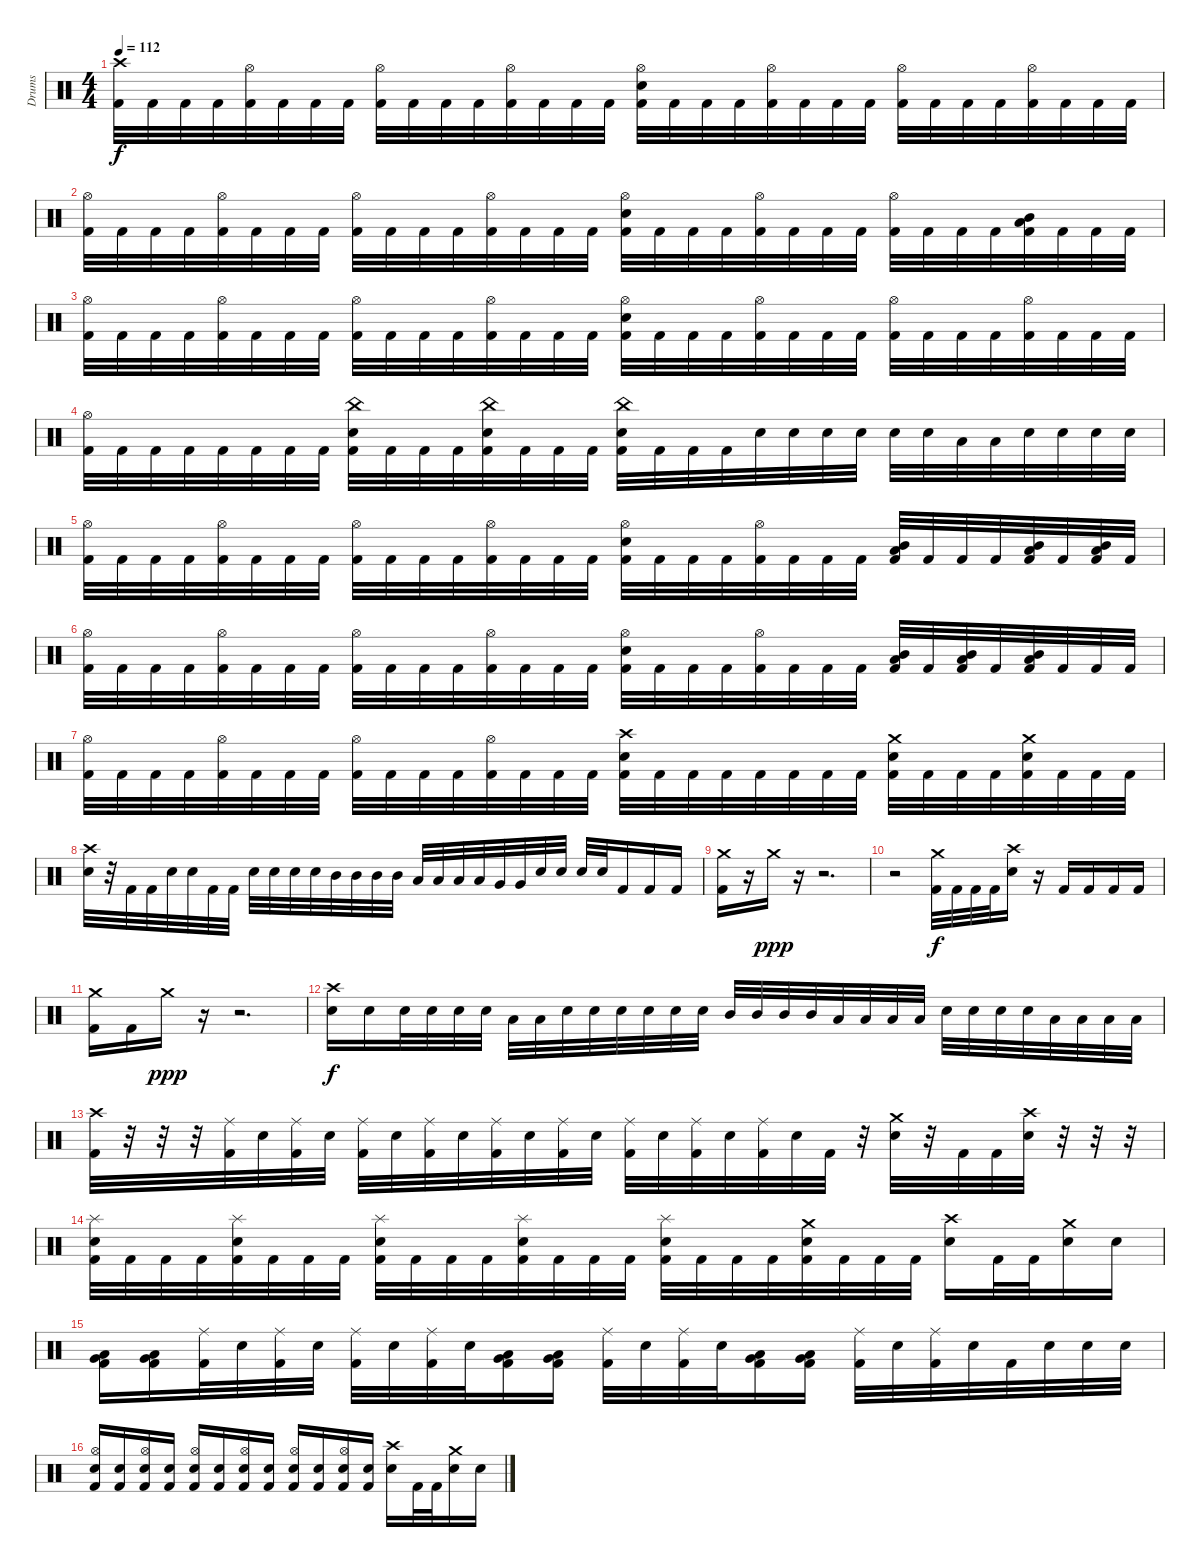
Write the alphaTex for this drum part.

\track ("Drums" "Drums") {instrument percussion}
\staff {score}
\articulation defaults
\ts (4 4)
\tempo 112
\clef neutral
\ks c
("Crash high (hit)" "Kick (hit) 2").32{dy f} "Kick (hit) 2".32 "Kick (hit) 2".32 "Kick (hit) 2".32 ("Hi-Hat (open)" "Kick (hit) 2").32 "Kick (hit) 2".32 "Kick (hit) 2".32 "Kick (hit) 2".32 ("Hi-Hat (open)" "Kick (hit) 2").32 "Kick (hit) 2".32 "Kick (hit) 2".32 "Kick (hit) 2".32 ("Hi-Hat (open)" "Kick (hit) 2").32 "Kick (hit) 2".32 "Kick (hit) 2".32 "Kick (hit) 2".32 ("Hi-Hat (open)" "Snare (hit) 2" "Kick (hit) 2").32 "Kick (hit) 2".32 "Kick (hit) 2".32 "Kick (hit) 2".32 ("Hi-Hat (open)" "Kick (hit) 2").32 "Kick (hit) 2".32 "Kick (hit) 2".32 "Kick (hit) 2".32 ("Hi-Hat (open)" "Kick (hit) 2").32 "Kick (hit) 2".32 "Kick (hit) 2".32 "Kick (hit) 2".32 ("Hi-Hat (open)" "Kick (hit) 2").32 "Kick (hit) 2".32 "Kick (hit) 2".32 "Kick (hit) 2".32 |
("Hi-Hat (open)" "Kick (hit) 2").32 "Kick (hit) 2".32 "Kick (hit) 2".32 "Kick (hit) 2".32 ("Hi-Hat (open)" "Kick (hit) 2").32 "Kick (hit) 2".32 "Kick (hit) 2".32 "Kick (hit) 2".32 ("Hi-Hat (open)" "Kick (hit) 2").32 "Kick (hit) 2".32 "Kick (hit) 2".32 "Kick (hit) 2".32 ("Hi-Hat (open)" "Kick (hit) 2").32 "Kick (hit) 2".32 "Kick (hit) 2".32 "Kick (hit) 2".32 ("Hi-Hat (open)" "Snare (hit) 2" "Kick (hit) 2").32 "Kick (hit) 2".32 "Kick (hit) 2".32 "Kick (hit) 2".32 ("Hi-Hat (open)" "Kick (hit) 2").32 "Kick (hit) 2".32 "Kick (hit) 2".32 "Kick (hit) 2".32 ("Hi-Hat (open)" "Kick (hit) 2").32 "Kick (hit) 2".32 "Kick (hit) 2".32 "Kick (hit) 2".32 ("Mid Tom (hit)" "Low Tom (hit)" "Kick (hit) 2").32 "Kick (hit) 2".32 "Kick (hit) 2".32 "Kick (hit) 2".32 |
("Hi-Hat (open)" "Kick (hit) 2").32 "Kick (hit) 2".32 "Kick (hit) 2".32 "Kick (hit) 2".32 ("Hi-Hat (open)" "Kick (hit) 2").32 "Kick (hit) 2".32 "Kick (hit) 2".32 "Kick (hit) 2".32 ("Hi-Hat (open)" "Kick (hit) 2").32 "Kick (hit) 2".32 "Kick (hit) 2".32 "Kick (hit) 2".32 ("Hi-Hat (open)" "Kick (hit) 2").32 "Kick (hit) 2".32 "Kick (hit) 2".32 "Kick (hit) 2".32 ("Hi-Hat (open)" "Snare (hit) 2" "Kick (hit) 2").32 "Kick (hit) 2".32 "Kick (hit) 2".32 "Kick (hit) 2".32 ("Hi-Hat (open)" "Kick (hit) 2").32 "Kick (hit) 2".32 "Kick (hit) 2".32 "Kick (hit) 2".32 ("Hi-Hat (open)" "Kick (hit) 2").32 "Kick (hit) 2".32 "Kick (hit) 2".32 "Kick (hit) 2".32 ("Hi-Hat (open)" "Kick (hit) 2").32 "Kick (hit) 2".32 "Kick (hit) 2".32 "Kick (hit) 2".32 |
("Hi-Hat (open)" "Kick (hit) 2").32 "Kick (hit) 2".32 "Kick (hit) 2".32 "Kick (hit) 2".32 "Kick (hit) 2".32 "Kick (hit) 2".32 "Kick (hit) 2".32 "Kick (hit) 2".32 ("China (hit)" "Snare (hit) 2" "Kick (hit) 2").32 "Kick (hit) 2".32 "Kick (hit) 2".32 "Kick (hit) 2".32 ("China (hit)" "Snare (hit) 2" "Kick (hit) 2").32 "Kick (hit) 2".32 "Kick (hit) 2".32 "Kick (hit) 2".32 ("China (hit)" "Snare (hit) 2" "Kick (hit) 2").32 "Kick (hit) 2".32 "Kick (hit) 2".32 "Kick (hit) 2".32 "Snare (hit) 2".32 "Snare (hit) 2".32 "Snare (hit) 2".32 "Snare (hit) 2".32 "Snare (hit) 2".32 "Snare (hit) 2".32 "Low Tom (hit)".32 "Low Tom (hit)".32 "Snare (hit) 2".32 "Snare (hit) 2".32 "Snare (hit) 2".32 "Snare (hit) 2".32 |
("Hi-Hat (open)" "Kick (hit) 2").32 "Kick (hit) 2".32 "Kick (hit) 2".32 "Kick (hit) 2".32 ("Hi-Hat (open)" "Kick (hit) 2").32 "Kick (hit) 2".32 "Kick (hit) 2".32 "Kick (hit) 2".32 ("Hi-Hat (open)" "Kick (hit) 2").32 "Kick (hit) 2".32 "Kick (hit) 2".32 "Kick (hit) 2".32 ("Hi-Hat (open)" "Kick (hit) 2").32 "Kick (hit) 2".32 "Kick (hit) 2".32 "Kick (hit) 2".32 ("Hi-Hat (open)" "Snare (hit) 2" "Kick (hit) 2").32 "Kick (hit) 2".32 "Kick (hit) 2".32 "Kick (hit) 2".32 ("Hi-Hat (open)" "Kick (hit) 2").32 "Kick (hit) 2".32 "Kick (hit) 2".32 "Kick (hit) 2".32 ("Mid Tom (hit)" "Low Tom (hit)" "Kick (hit) 2").32 "Kick (hit) 2".32 "Kick (hit) 2".32 "Kick (hit) 2".32 ("Mid Tom (hit)" "Low Tom (hit)" "Kick (hit) 2").32 "Kick (hit) 2".32 ("Mid Tom (hit)" "Low Tom (hit)" "Kick (hit) 2").32 "Kick (hit) 2".32 |
("Hi-Hat (open)" "Kick (hit) 2").32 "Kick (hit) 2".32 "Kick (hit) 2".32 "Kick (hit) 2".32 ("Hi-Hat (open)" "Kick (hit) 2").32 "Kick (hit) 2".32 "Kick (hit) 2".32 "Kick (hit) 2".32 ("Hi-Hat (open)" "Kick (hit) 2").32 "Kick (hit) 2".32 "Kick (hit) 2".32 "Kick (hit) 2".32 ("Hi-Hat (open)" "Kick (hit) 2").32 "Kick (hit) 2".32 "Kick (hit) 2".32 "Kick (hit) 2".32 ("Hi-Hat (open)" "Snare (hit) 2" "Kick (hit) 2").32 "Kick (hit) 2".32 "Kick (hit) 2".32 "Kick (hit) 2".32 ("Hi-Hat (open)" "Kick (hit) 2").32 "Kick (hit) 2".32 "Kick (hit) 2".32 "Kick (hit) 2".32 ("Mid Tom (hit)" "Low Tom (hit)" "Kick (hit) 2").32 "Kick (hit) 2".32 ("Mid Tom (hit)" "Low Tom (hit)" "Kick (hit) 2").32 "Kick (hit) 2".32 ("Mid Tom (hit)" "Low Tom (hit)" "Kick (hit) 2").32 "Kick (hit) 2".32 "Kick (hit) 2".32 "Kick (hit) 2".32 |
("Hi-Hat (open)" "Kick (hit) 2").32 "Kick (hit) 2".32 "Kick (hit) 2".32 "Kick (hit) 2".32 ("Hi-Hat (open)" "Kick (hit) 2").32 "Kick (hit) 2".32 "Kick (hit) 2".32 "Kick (hit) 2".32 ("Hi-Hat (open)" "Kick (hit) 2").32 "Kick (hit) 2".32 "Kick (hit) 2".32 "Kick (hit) 2".32 ("Hi-Hat (open)" "Kick (hit) 2").32 "Kick (hit) 2".32 "Kick (hit) 2".32 "Kick (hit) 2".32 ("Crash high (hit)" "Snare (hit) 2" "Kick (hit) 2").32 "Kick (hit) 2".32 "Kick (hit) 2".32 "Kick (hit) 2".32 "Kick (hit) 2".32 "Kick (hit) 2".32 "Kick (hit) 2".32 "Kick (hit) 2".32 ("Crash medium (hit)" "Snare (hit) 2" "Kick (hit) 2").32 "Kick (hit) 2".32 "Kick (hit) 2".32 "Kick (hit) 2".32 ("Crash medium (hit)" "Snare (hit) 2" "Kick (hit) 2").32 "Kick (hit) 2".32 "Kick (hit) 2".32 "Kick (hit) 2".32 |
("Crash high (hit)" "Snare (hit) 2").32 r.32 "Kick (hit) 2".32 "Kick (hit) 2".32 "Snare (hit) 2".32 "Snare (hit) 2".32 "Kick (hit) 2".32 "Kick (hit) 2".32 "Snare (hit) 2".32 "Snare (hit) 2".32 "Snare (hit) 2".32 "Snare (hit) 2".32 "Mid Tom (hit)".32 "Mid Tom (hit)".32 "Mid Tom (hit)".32 "Mid Tom (hit)".32 "Low Tom (hit)".32 "Low Tom (hit)".32 "Low Tom (hit)".32 "Low Tom (hit)".32 "Very Low Tom (hit)".32 "Very Low Tom (hit)".32 "Snare (hit) 2".32 "Snare (hit) 2".32 "Snare (hit) 2".32 "Snare (hit) 2".32 "Kick (hit) 2".16 "Kick (hit) 2".16 "Kick (hit) 2".16 |
("Crash medium (hit)" "Kick (hit) 2").16 r.16 "Crash medium (hit)".16{dy ppp} r.16 r.2{d} |
r.2 ("Crash medium (hit)" "Kick (hit) 2").32{dy f} "Kick (hit) 2".32 "Kick (hit) 2".32 "Kick (hit) 2".32 ("Crash high (hit)" "Snare (hit) 2").16 r.16 "Kick (hit) 2".16 "Kick (hit) 2".16 "Kick (hit) 2".16 "Kick (hit) 2".16 |
("Crash medium (hit)" "Kick (hit) 2").16 "Kick (hit) 2".16 "Crash medium (hit)".16{dy ppp} r.16 r.2{d} |
("Crash high (hit)" "Snare (hit) 2").16{dy f} "Snare (hit) 2".16 "Snare (hit) 2".32 "Snare (hit) 2".32 "Snare (hit) 2".32 "Snare (hit) 2".32 "Low Tom (hit)".32 "Low Tom (hit)".32 "Snare (hit) 2".32 "Snare (hit) 2".32 "Snare (hit) 2".32 "Snare (hit) 2".32 "Snare (hit) 2".32 "Snare (hit) 2".32 "Mid Tom (hit)".32 "Mid Tom (hit)".32 "Mid Tom (hit)".32 "Mid Tom (hit)".32 "Low Tom (hit)".32 "Low Tom (hit)".32 "Low Tom (hit)".32 "Low Tom (hit)".32 "Snare (hit) 2".32 "Snare (hit) 2".32 "Snare (hit) 2".32 "Snare (hit) 2".32 "Low Tom (hit)".32 "Low Tom (hit)".32 "Low Tom (hit)".32 "Low Tom (hit)".32 |
("Crash high (hit)" "Kick (hit) 2").32 r.32 r.32 r.32 ("Ride (middle)" "Kick (hit) 2").32 "Snare (hit) 2".32 ("Ride (middle)" "Kick (hit) 2").32 "Snare (hit) 2".32 ("Ride (middle)" "Kick (hit) 2").32 "Snare (hit) 2".32 ("Ride (middle)" "Kick (hit) 2").32 "Snare (hit) 2".32 ("Ride (middle)" "Kick (hit) 2").32 "Snare (hit) 2".32 ("Ride (middle)" "Kick (hit) 2").32 "Snare (hit) 2".32 ("Ride (middle)" "Kick (hit) 2").32 "Snare (hit) 2".32 ("Ride (middle)" "Kick (hit) 2").32 "Snare (hit) 2".32 ("Ride (middle)" "Kick (hit) 2").32 "Snare (hit) 2".32 "Kick (hit) 2".32 r.32 ("Crash medium (hit)" "Snare (hit) 2").32 r.32 "Kick (hit) 2".32 "Kick (hit) 2".32 ("Crash high (hit)" "Snare (hit) 2").32 r.32 r.32 r.32 |
("Splash (hit)" "Snare (hit) 2" "Kick (hit) 2").32 "Kick (hit) 2".32 "Kick (hit) 2".32 "Kick (hit) 2".32 ("Splash (hit)" "Snare (hit) 2" "Kick (hit) 2").32 "Kick (hit) 2".32 "Kick (hit) 2".32 "Kick (hit) 2".32 ("Splash (hit)" "Snare (hit) 2" "Kick (hit) 2").32 "Kick (hit) 2".32 "Kick (hit) 2".32 "Kick (hit) 2".32 ("Splash (hit)" "Snare (hit) 2" "Kick (hit) 2").32 "Kick (hit) 2".32 "Kick (hit) 2".32 "Kick (hit) 2".32 ("Splash (hit)" "Snare (hit) 2" "Kick (hit) 2").32 "Kick (hit) 2".32 "Kick (hit) 2".32 "Kick (hit) 2".32 ("Crash medium (hit)" "Snare (hit) 2" "Kick (hit) 2").32 "Kick (hit) 2".32 "Kick (hit) 2".32 "Kick (hit) 2".32 ("Crash high (hit)" "Snare (hit) 2").16 "Kick (hit) 2".32 "Kick (hit) 2".32 ("Crash medium (hit)" "Snare (hit) 2").16 "Snare (hit) 2".16 |
("Very Low Tom (hit)" "Low Tom (hit)" "Kick (hit) 2").16 ("Very Low Tom (hit)" "Low Tom (hit)" "Kick (hit) 2").16 ("Ride (middle)" "Kick (hit) 2").32 "Snare (hit) 2".32 ("Ride (middle)" "Kick (hit) 2").32 "Snare (hit) 2".32 ("Ride (middle)" "Kick (hit) 2").32 "Snare (hit) 2".32 ("Ride (middle)" "Kick (hit) 2").32 "Snare (hit) 2".32 ("Very Low Tom (hit)" "Low Tom (hit)" "Kick (hit) 2").16 ("Very Low Tom (hit)" "Low Tom (hit)" "Kick (hit) 2").16 ("Ride (middle)" "Kick (hit) 2").32 "Snare (hit) 2".32 ("Ride (middle)" "Kick (hit) 2").32 "Snare (hit) 2".32 ("Very Low Tom (hit)" "Low Tom (hit)" "Kick (hit) 2").16 ("Very Low Tom (hit)" "Low Tom (hit)" "Kick (hit) 2").16 ("Ride (middle)" "Kick (hit) 2").32 "Snare (hit) 2".32 ("Ride (middle)" "Kick (hit) 2").32 "Snare (hit) 2".32 "Kick (hit) 2".32 "Snare (hit) 2".32 "Snare (hit) 2".32 "Snare (hit) 2".32 |
("Hi-Hat (open)" "Snare (hit) 2" "Kick (hit) 2").16 ("Snare (hit) 2" "Kick (hit) 2").16 ("Hi-Hat (open)" "Snare (hit) 2" "Kick (hit) 2").16 ("Snare (hit) 2" "Kick (hit) 2").16 ("Hi-Hat (open)" "Snare (hit) 2" "Kick (hit) 2").16 ("Snare (hit) 2" "Kick (hit) 2").16 ("Hi-Hat (open)" "Snare (hit) 2" "Kick (hit) 2").16 ("Snare (hit) 2" "Kick (hit) 2").16 ("Hi-Hat (open)" "Snare (hit) 2" "Kick (hit) 2").16 ("Snare (hit) 2" "Kick (hit) 2").16 ("Hi-Hat (open)" "Snare (hit) 2" "Kick (hit) 2").16 ("Snare (hit) 2" "Kick (hit) 2").16 ("Crash high (hit)" "Snare (hit) 2").16 "Kick (hit) 2".32 "Kick (hit) 2".32 ("Crash medium (hit)" "Snare (hit) 2").16 "Snare (hit) 2".16
